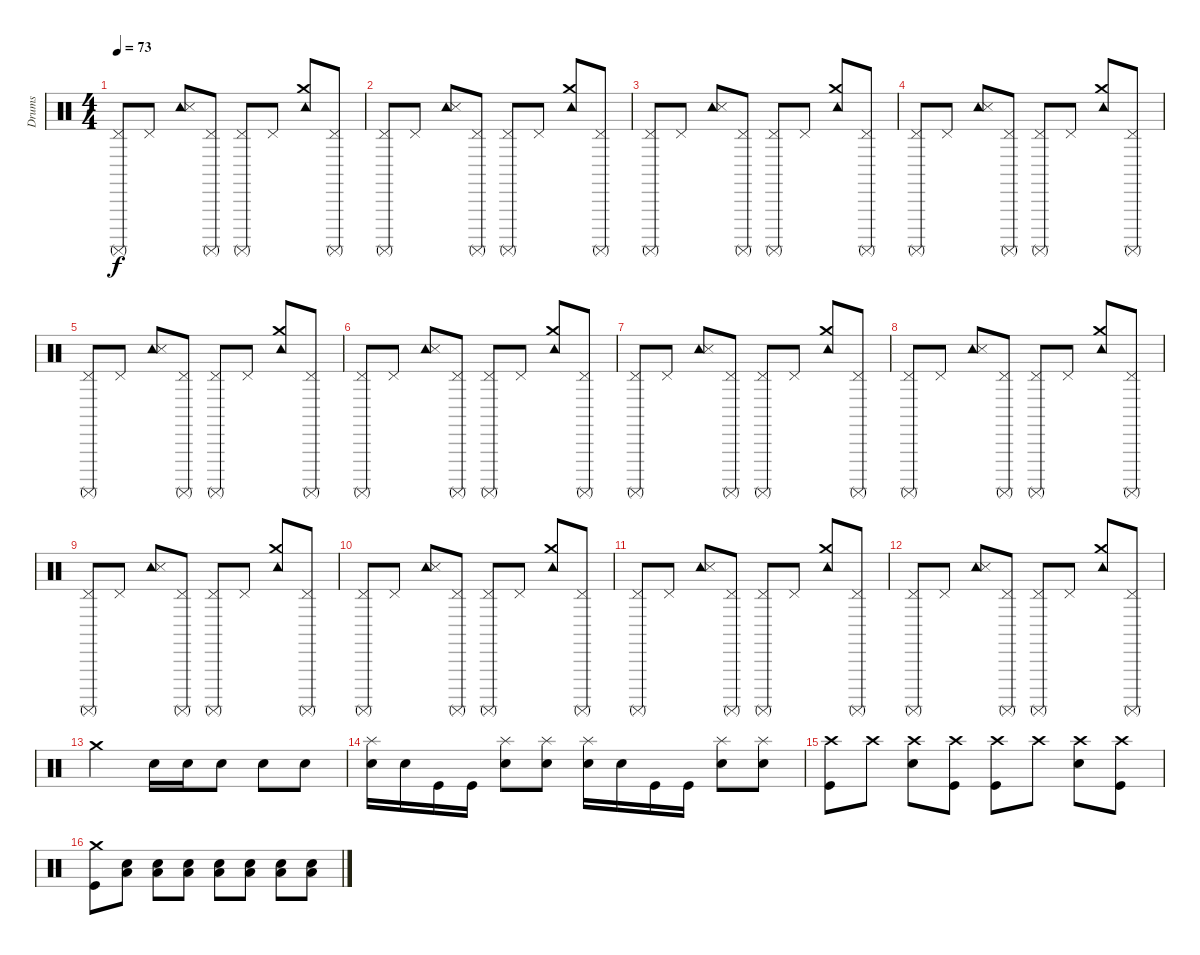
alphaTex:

\track ("Drums" "Drums") {instrument percussion}
\staff {score}
\articulation defaults
\ts (4 4)
\tempo 73
\clef neutral
\ks c
("Pedal Hi-Hat (hit)" "Surdo (mute)").8{dy f} "Pedal Hi-Hat (hit)".8 ("Tambourine (hit)" "Snare (side stick) 3").8 ("Pedal Hi-Hat (hit)" "Surdo (mute)").8 ("Pedal Hi-Hat (hit)" "Surdo (mute)").8 "Pedal Hi-Hat (hit)".8 ("Tambourine (hit)" "Crash medium (hit)").8 ("Pedal Hi-Hat (hit)" "Surdo (mute)").8 |
("Pedal Hi-Hat (hit)" "Surdo (mute)").8 "Pedal Hi-Hat (hit)".8 ("Tambourine (hit)" "Snare (side stick) 3").8 ("Pedal Hi-Hat (hit)" "Surdo (mute)").8 ("Pedal Hi-Hat (hit)" "Surdo (mute)").8 "Pedal Hi-Hat (hit)".8 ("Tambourine (hit)" "Crash medium (hit)").8 ("Pedal Hi-Hat (hit)" "Surdo (mute)").8 |
("Pedal Hi-Hat (hit)" "Surdo (mute)").8 "Pedal Hi-Hat (hit)".8 ("Tambourine (hit)" "Snare (side stick) 3").8 ("Pedal Hi-Hat (hit)" "Surdo (mute)").8 ("Pedal Hi-Hat (hit)" "Surdo (mute)").8 "Pedal Hi-Hat (hit)".8 ("Tambourine (hit)" "Crash medium (hit)").8 ("Pedal Hi-Hat (hit)" "Surdo (mute)").8 |
("Pedal Hi-Hat (hit)" "Surdo (mute)").8 "Pedal Hi-Hat (hit)".8 ("Tambourine (hit)" "Snare (side stick) 3").8 ("Pedal Hi-Hat (hit)" "Surdo (mute)").8 ("Pedal Hi-Hat (hit)" "Surdo (mute)").8 "Pedal Hi-Hat (hit)".8 ("Tambourine (hit)" "Crash medium (hit)").8 ("Pedal Hi-Hat (hit)" "Surdo (mute)").8 |
("Pedal Hi-Hat (hit)" "Surdo (mute)").8 "Pedal Hi-Hat (hit)".8 ("Tambourine (hit)" "Snare (side stick) 3").8 ("Pedal Hi-Hat (hit)" "Surdo (mute)").8 ("Pedal Hi-Hat (hit)" "Surdo (mute)").8 "Pedal Hi-Hat (hit)".8 ("Tambourine (hit)" "Crash medium (hit)").8 ("Pedal Hi-Hat (hit)" "Surdo (mute)").8 |
("Pedal Hi-Hat (hit)" "Surdo (mute)").8 "Pedal Hi-Hat (hit)".8 ("Tambourine (hit)" "Snare (side stick) 3").8 ("Pedal Hi-Hat (hit)" "Surdo (mute)").8 ("Pedal Hi-Hat (hit)" "Surdo (mute)").8 "Pedal Hi-Hat (hit)".8 ("Tambourine (hit)" "Crash medium (hit)").8 ("Pedal Hi-Hat (hit)" "Surdo (mute)").8 |
("Pedal Hi-Hat (hit)" "Surdo (mute)").8 "Pedal Hi-Hat (hit)".8 ("Tambourine (hit)" "Snare (side stick) 3").8 ("Pedal Hi-Hat (hit)" "Surdo (mute)").8 ("Pedal Hi-Hat (hit)" "Surdo (mute)").8 "Pedal Hi-Hat (hit)".8 ("Tambourine (hit)" "Crash medium (hit)").8 ("Pedal Hi-Hat (hit)" "Surdo (mute)").8 |
("Pedal Hi-Hat (hit)" "Surdo (mute)").8 "Pedal Hi-Hat (hit)".8 ("Tambourine (hit)" "Snare (side stick) 3").8 ("Pedal Hi-Hat (hit)" "Surdo (mute)").8 ("Pedal Hi-Hat (hit)" "Surdo (mute)").8 "Pedal Hi-Hat (hit)".8 ("Tambourine (hit)" "Crash medium (hit)").8 ("Pedal Hi-Hat (hit)" "Surdo (mute)").8 |
("Pedal Hi-Hat (hit)" "Surdo (mute)").8 "Pedal Hi-Hat (hit)".8 ("Tambourine (hit)" "Snare (side stick) 3").8 ("Pedal Hi-Hat (hit)" "Surdo (mute)").8 ("Pedal Hi-Hat (hit)" "Surdo (mute)").8 "Pedal Hi-Hat (hit)".8 ("Tambourine (hit)" "Crash medium (hit)").8 ("Pedal Hi-Hat (hit)" "Surdo (mute)").8 |
("Pedal Hi-Hat (hit)" "Surdo (mute)").8 "Pedal Hi-Hat (hit)".8 ("Tambourine (hit)" "Snare (side stick) 3").8 ("Pedal Hi-Hat (hit)" "Surdo (mute)").8 ("Pedal Hi-Hat (hit)" "Surdo (mute)").8 "Pedal Hi-Hat (hit)".8 ("Tambourine (hit)" "Crash medium (hit)").8 ("Pedal Hi-Hat (hit)" "Surdo (mute)").8 |
("Pedal Hi-Hat (hit)" "Surdo (mute)").8 "Pedal Hi-Hat (hit)".8 ("Tambourine (hit)" "Snare (side stick) 3").8 ("Pedal Hi-Hat (hit)" "Surdo (mute)").8 ("Pedal Hi-Hat (hit)" "Surdo (mute)").8 "Pedal Hi-Hat (hit)".8 ("Tambourine (hit)" "Crash medium (hit)").8 ("Pedal Hi-Hat (hit)" "Surdo (mute)").8 |
("Pedal Hi-Hat (hit)" "Surdo (mute)").8 "Pedal Hi-Hat (hit)".8 ("Tambourine (hit)" "Snare (side stick) 3").8 ("Pedal Hi-Hat (hit)" "Surdo (mute)").8 ("Pedal Hi-Hat (hit)" "Surdo (mute)").8 "Pedal Hi-Hat (hit)".8 ("Tambourine (hit)" "Crash medium (hit)").8 ("Pedal Hi-Hat (hit)" "Surdo (mute)").8 |
"Crash medium (hit)".2 "Electric Snare (hit)".16 "Electric Snare (hit)".16 "Electric Snare (hit)".8 "Electric Snare (hit)".8 "Electric Snare (hit)".8 |
("Splash (hit)" "Electric Snare (hit)").16 "Electric Snare (hit)".16 "Kick (hit)".16 "Kick (hit)".16 ("Splash (hit)" "Electric Snare (hit)").8 ("Splash (hit)" "Electric Snare (hit)").8 ("Splash (hit)" "Electric Snare (hit)").16 "Electric Snare (hit)".16 "Kick (hit)".16 "Kick (hit)".16 ("Splash (hit)" "Electric Snare (hit)").8 ("Splash (hit)" "Electric Snare (hit)").8 |
("Crash high (hit)" "Kick (hit)").8 "Crash high (hit)".8 ("Crash high (hit)" "Electric Snare (hit)").8 ("Crash high (hit)" "Kick (hit)").8 ("Crash high (hit)" "Kick (hit)").8 "Crash high (hit)".8 ("Crash high (hit)" "Electric Snare (hit)").8 ("Crash high (hit)" "Kick (hit)").8 |
("Crash medium (hit)" "Kick (hit)").8 ("Low Floor Tom (hit)" "Electric Snare (hit)").8 ("Low Floor Tom (hit)" "Electric Snare (hit)").8 ("Low Floor Tom (hit)" "Electric Snare (hit)").8 ("Low Floor Tom (hit)" "Electric Snare (hit)").8 ("Low Floor Tom (hit)" "Electric Snare (hit)").8 ("Low Floor Tom (hit)" "Electric Snare (hit)").8 ("Low Floor Tom (hit)" "Electric Snare (hit)").8
